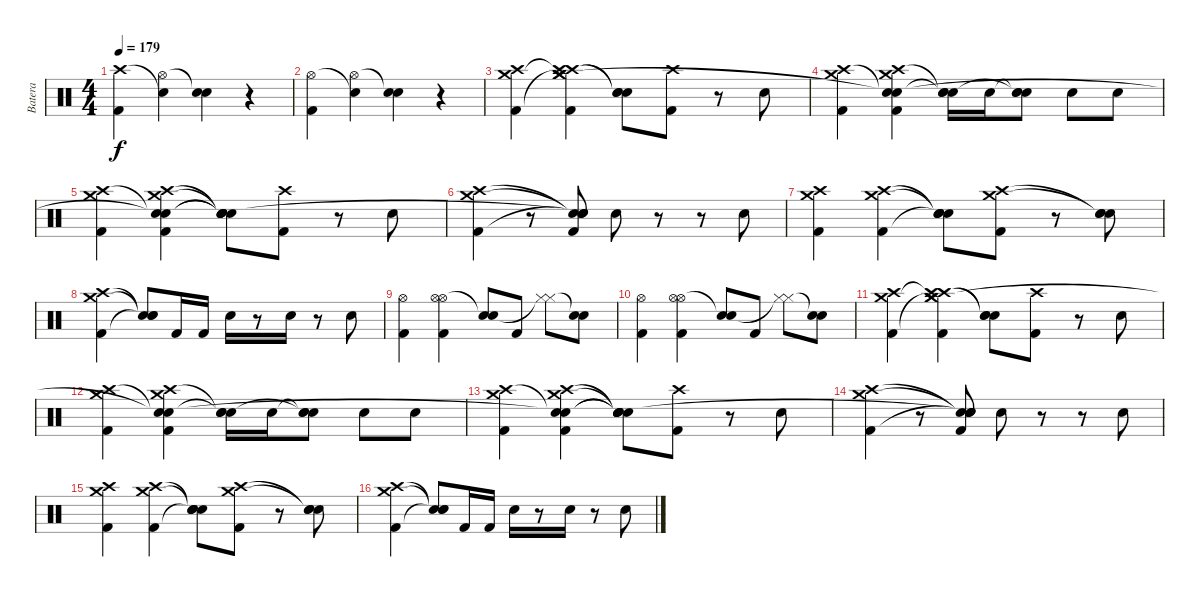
\track ("Batera" "Batera") {instrument percussion}
\staff {score}
\articulation defaults
\ts (4 4)
\tempo 179
\clef neutral
\ks c
("Crash high (hit)" "Kick (hit) 2").4{dy f} ("Snare (hit)"{t} "Hi-Hat (open)").4 ("Electric Snare (hit)" "Snare (hit)"{t}).4 r.4 |
("Hi-Hat (open)" "Kick (hit) 2").4 ("Snare (hit)"{t} "Hi-Hat (open)").4 ("Electric Snare (hit)" "Snare (hit)"{t}).4 r.4 |
("Crash high (hit)" "Crash medium (hit)" "Kick (hit) 2").4 ("Crash high (hit)" "Crash high (hit)"{t} "Crash medium (hit)"{t} "Crash medium (hit)" "Kick (hit) 2").4 ("Snare (hit)"{t} "Snare (hit)"{t} "Electric Snare (hit)").8 ("Crash high (hit)" "Kick (hit) 2").8 r.8 "Electric Snare (hit)".8 |
("Crash high (hit)" "Crash medium (hit)" "Kick (hit) 2").4 ("Snare (hit)"{t} "Crash high (hit)" "Crash medium (hit)" "Snare (hit)"{t} "Kick (hit) 2").4 ("Snare (hit)"{t} "Snare (hit)"{t} "Electric Snare (hit)").16 "Electric Snare (hit)".16 ("Snare (hit)"{t} "Snare (hit)"{t} "Electric Snare (hit)").8 "Electric Snare (hit)".8 "Electric Snare (hit)".8 |
("Crash high (hit)" "Crash medium (hit)" "Kick (hit) 2").4 ("Snare (hit)"{t} "Crash high (hit)" "Crash medium (hit)" "Snare (hit)"{t} "Kick (hit) 2").4 ("Snare (hit)"{t} "Snare (hit)"{t} "Snare (hit)"{t} "Snare (hit)"{t} "Electric Snare (hit)").8 ("Crash high (hit)" "Kick (hit) 2").8 r.8 "Electric Snare (hit)".8 |
("Crash medium (hit)" "Crash high (hit)" "Kick (hit) 2").4 r.8 ("Snare (hit)"{t} "Snare (hit)"{t} "Snare (hit)"{t} "Snare (hit)"{t} "Kick (hit) 2").8 "Electric Snare (hit)".8 r.8 r.8 "Electric Snare (hit)".8 |
("Crash medium (hit)" "Crash high (hit)" "Kick (hit) 2").4 ("Crash medium (hit)" "Crash high (hit)" "Kick (hit) 2").4 ("Snare (hit)"{t} "Snare (hit)"{t} "Snare (hit)"{t} "Electric Snare (hit)").8 ("Crash medium (hit)" "Crash high (hit)" "Kick (hit) 2").8 r.8 ("Snare (hit)"{t} "Snare (hit)"{t} "Electric Snare (hit)").8 |
("Crash high (hit)" "Crash medium (hit)" "Kick (hit) 2").4 ("Snare (hit)"{t} "Snare (hit)"{t} "Snare (hit)"{t}).8 "Kick (hit) 2".16 "Kick (hit) 2".16 "Electric Snare (hit)".16 r.8 "Electric Snare (hit)".16 r.8 "Electric Snare (hit)".8 |
("Hi-Hat (open)" "Kick (hit) 2").4 ("Hi-Hat (open)" "Hi-Hat (open)" "Kick (hit) 2").4 ("Electric Snare (hit)" "Snare (hit)"{t}).8 "Kick (hit) 2".8 ("Hi-Hat (closed)" "Hi-Hat (closed)"{t}).8 ("Snare (hit)"{t} "Electric Snare (hit)").8 |
("Hi-Hat (open)" "Kick (hit) 2").4 ("Hi-Hat (open)" "Hi-Hat (open)" "Kick (hit) 2").4 ("Electric Snare (hit)" "Snare (hit)"{t}).8 "Kick (hit) 2".8 ("Hi-Hat (closed)" "Hi-Hat (closed)"{t}).8 ("Snare (hit)"{t} "Electric Snare (hit)").8 |
("Crash high (hit)" "Crash medium (hit)" "Kick (hit) 2").4 ("Crash high (hit)" "Crash high (hit)"{t} "Crash medium (hit)"{t} "Crash medium (hit)" "Kick (hit) 2").4 ("Snare (hit)"{t} "Snare (hit)"{t} "Electric Snare (hit)").8 ("Crash high (hit)" "Kick (hit) 2").8 r.8 "Electric Snare (hit)".8 |
("Crash high (hit)" "Crash medium (hit)" "Kick (hit) 2").4 ("Snare (hit)"{t} "Crash high (hit)" "Crash medium (hit)" "Snare (hit)"{t} "Kick (hit) 2").4 ("Snare (hit)"{t} "Snare (hit)"{t} "Electric Snare (hit)").16 "Electric Snare (hit)".16 ("Snare (hit)"{t} "Snare (hit)"{t} "Electric Snare (hit)").8 "Electric Snare (hit)".8 "Electric Snare (hit)".8 |
("Crash high (hit)" "Crash medium (hit)" "Kick (hit) 2").4 ("Snare (hit)"{t} "Crash high (hit)" "Crash medium (hit)" "Snare (hit)"{t} "Kick (hit) 2").4 ("Snare (hit)"{t} "Snare (hit)"{t} "Snare (hit)"{t} "Snare (hit)"{t} "Electric Snare (hit)").8 ("Crash high (hit)" "Kick (hit) 2").8 r.8 "Electric Snare (hit)".8 |
("Crash medium (hit)" "Crash high (hit)" "Kick (hit) 2").4 r.8 ("Snare (hit)"{t} "Snare (hit)"{t} "Snare (hit)"{t} "Snare (hit)"{t} "Kick (hit) 2").8 "Electric Snare (hit)".8 r.8 r.8 "Electric Snare (hit)".8 |
("Crash medium (hit)" "Crash high (hit)" "Kick (hit) 2").4 ("Crash medium (hit)" "Crash high (hit)" "Kick (hit) 2").4 ("Snare (hit)"{t} "Snare (hit)"{t} "Snare (hit)"{t} "Electric Snare (hit)").8 ("Crash medium (hit)" "Crash high (hit)" "Kick (hit) 2").8 r.8 ("Snare (hit)"{t} "Snare (hit)"{t} "Electric Snare (hit)").8 |
("Crash high (hit)" "Crash medium (hit)" "Kick (hit) 2").4 ("Snare (hit)"{t} "Snare (hit)"{t} "Snare (hit)"{t}).8 "Kick (hit) 2".16 "Kick (hit) 2".16 "Electric Snare (hit)".16 r.8 "Electric Snare (hit)".16 r.8 "Electric Snare (hit)".8
